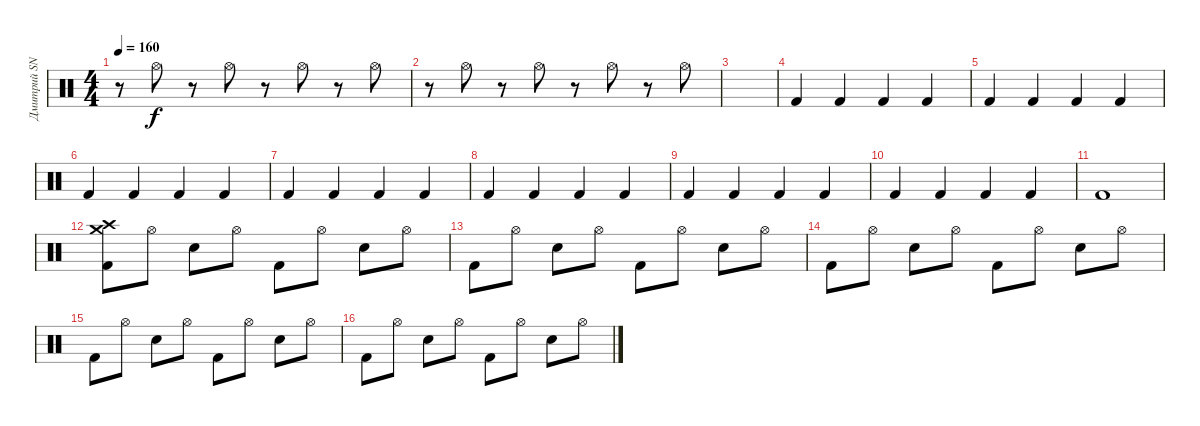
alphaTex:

\track ("Дмитрий SNAKE Хакимов" "Дмитрий SN") {instrument percussion}
\staff {score}
\articulation defaults
\ts (4 4)
\tempo 160
\clef neutral
\ks c
r.8{dy f} "Hi-Hat (open)".8 r.8 "Hi-Hat (open)".8 r.8 "Hi-Hat (open)".8 r.8 "Hi-Hat (open)".8 |
r.8 "Hi-Hat (open)".8 r.8 "Hi-Hat (open)".8 r.8 "Hi-Hat (open)".8 r.8 "Hi-Hat (open)".8 |
|
"Kick (hit) 2".4 "Kick (hit) 2".4 "Kick (hit) 2".4 "Kick (hit) 2".4 |
"Kick (hit) 2".4 "Kick (hit) 2".4 "Kick (hit) 2".4 "Kick (hit) 2".4 |
"Kick (hit) 2".4 "Kick (hit) 2".4 "Kick (hit) 2".4 "Kick (hit) 2".4 |
"Kick (hit) 2".4 "Kick (hit) 2".4 "Kick (hit) 2".4 "Kick (hit) 2".4 |
"Kick (hit) 2".4 "Kick (hit) 2".4 "Kick (hit) 2".4 "Kick (hit) 2".4 |
"Kick (hit) 2".4 "Kick (hit) 2".4 "Kick (hit) 2".4 "Kick (hit) 2".4 |
"Kick (hit) 2".4 "Kick (hit) 2".4 "Kick (hit) 2".4 "Kick (hit) 2".4 |
"Kick (hit) 2".1 |
("Crash high (hit)" "Crash medium (hit)" "Kick (hit) 2").8 "Hi-Hat (open)".8 "Electric Snare (hit)".8 "Hi-Hat (open)".8 "Kick (hit) 2".8 "Hi-Hat (open)".8 "Electric Snare (hit)".8 "Hi-Hat (open)".8 |
"Kick (hit) 2".8 "Hi-Hat (open)".8 "Electric Snare (hit)".8 "Hi-Hat (open)".8 "Kick (hit) 2".8 "Hi-Hat (open)".8 "Electric Snare (hit)".8 "Hi-Hat (open)".8 |
"Kick (hit) 2".8 "Hi-Hat (open)".8 "Electric Snare (hit)".8 "Hi-Hat (open)".8 "Kick (hit) 2".8 "Hi-Hat (open)".8 "Electric Snare (hit)".8 "Hi-Hat (open)".8 |
"Kick (hit) 2".8 "Hi-Hat (open)".8 "Electric Snare (hit)".8 "Hi-Hat (open)".8 "Kick (hit) 2".8 "Hi-Hat (open)".8 "Electric Snare (hit)".8 "Hi-Hat (open)".8 |
"Kick (hit) 2".8 "Hi-Hat (open)".8 "Electric Snare (hit)".8 "Hi-Hat (open)".8 "Kick (hit) 2".8 "Hi-Hat (open)".8 "Electric Snare (hit)".8 "Hi-Hat (open)".8
